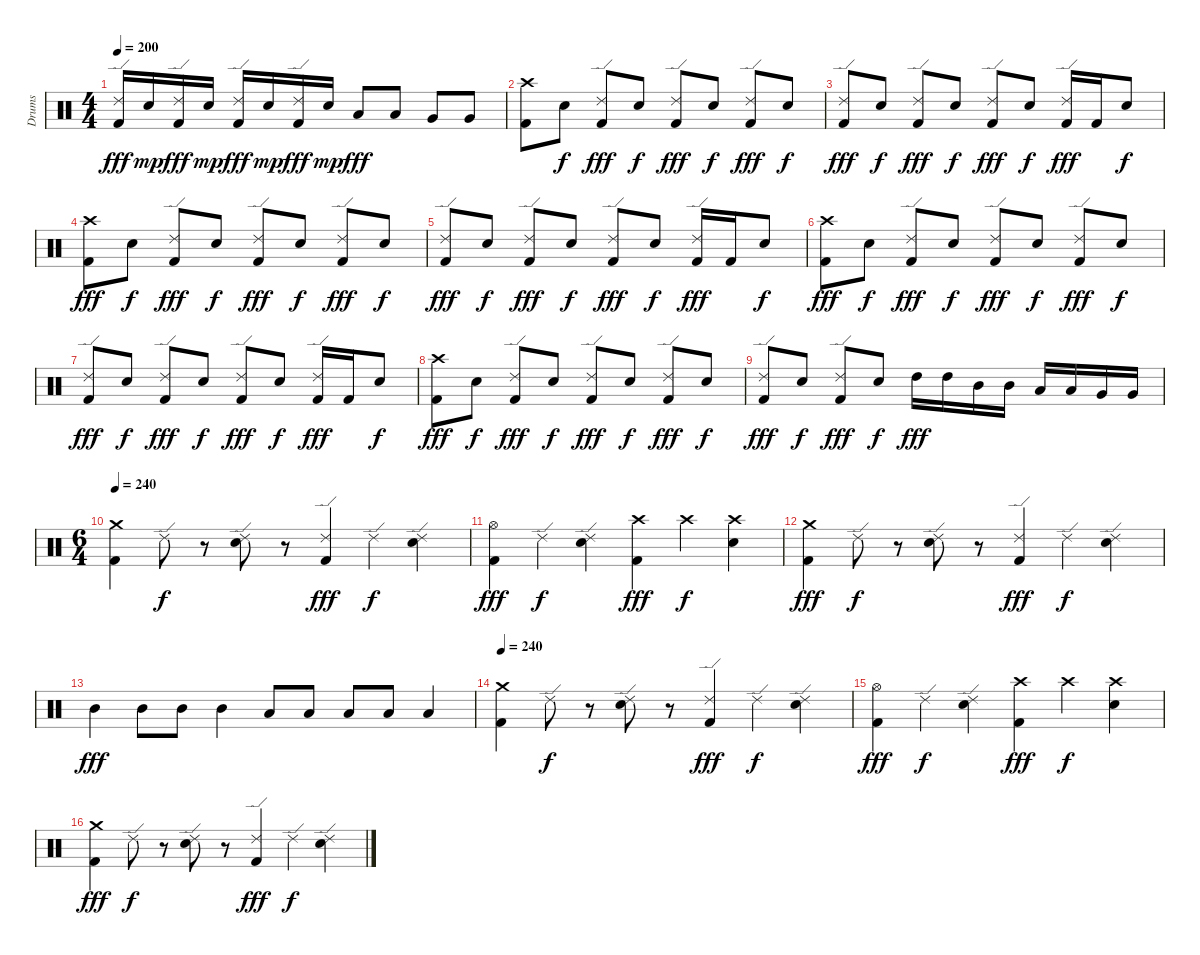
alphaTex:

\track ("Drums" "Drums") {instrument percussion}
\staff {score}
\articulation defaults
\ts (4 4)
\tempo 200
\clef neutral
\ks c
("Ride (edge) 2" "Kick (hit) 2").16{dy fff} "Electric Snare (hit)".16{dy mp} ("Ride (edge) 2" "Kick (hit) 2").16{dy fff} "Electric Snare (hit)".16{dy mp} ("Ride (edge) 2" "Kick (hit) 2").16{dy fff} "Electric Snare (hit)".16{dy mp} ("Ride (edge) 2" "Kick (hit) 2").16{dy fff} "Electric Snare (hit)".16{dy mp} "Low Tom (hit)".8{dy fff} "Low Tom (hit)".8 "Very Low Tom (hit)".8 "Very Low Tom (hit)".8 |
("Crash high (hit)" "Kick (hit) 2").8 "Electric Snare (hit)".8{dy f} ("Ride (edge) 2" "Kick (hit) 2").8{dy fff} "Electric Snare (hit)".8{dy f} ("Ride (edge) 2" "Kick (hit) 2").8{dy fff} "Electric Snare (hit)".8{dy f} ("Ride (edge) 2" "Kick (hit) 2").8{dy fff} "Electric Snare (hit)".8{dy f} |
("Ride (edge) 2" "Kick (hit) 2").8{dy fff} "Electric Snare (hit)".8{dy f} ("Ride (edge) 2" "Kick (hit) 2").8{dy fff} "Electric Snare (hit)".8{dy f} ("Ride (edge) 2" "Kick (hit) 2").8{dy fff} "Electric Snare (hit)".8{dy f} ("Ride (edge) 2" "Kick (hit) 2").16{dy fff} "Kick (hit) 2".16 "Electric Snare (hit)".8{dy f} |
("Crash high (hit)" "Kick (hit) 2").8{dy fff} "Electric Snare (hit)".8{dy f} ("Ride (edge) 2" "Kick (hit) 2").8{dy fff} "Electric Snare (hit)".8{dy f} ("Ride (edge) 2" "Kick (hit) 2").8{dy fff} "Electric Snare (hit)".8{dy f} ("Ride (edge) 2" "Kick (hit) 2").8{dy fff} "Electric Snare (hit)".8{dy f} |
("Ride (edge) 2" "Kick (hit) 2").8{dy fff} "Electric Snare (hit)".8{dy f} ("Ride (edge) 2" "Kick (hit) 2").8{dy fff} "Electric Snare (hit)".8{dy f} ("Ride (edge) 2" "Kick (hit) 2").8{dy fff} "Electric Snare (hit)".8{dy f} ("Ride (edge) 2" "Kick (hit) 2").16{dy fff} "Kick (hit) 2".16 "Electric Snare (hit)".8{dy f} |
("Crash high (hit)" "Kick (hit) 2").8{dy fff} "Electric Snare (hit)".8{dy f} ("Ride (edge) 2" "Kick (hit) 2").8{dy fff} "Electric Snare (hit)".8{dy f} ("Ride (edge) 2" "Kick (hit) 2").8{dy fff} "Electric Snare (hit)".8{dy f} ("Ride (edge) 2" "Kick (hit) 2").8{dy fff} "Electric Snare (hit)".8{dy f} |
("Ride (edge) 2" "Kick (hit) 2").8{dy fff} "Electric Snare (hit)".8{dy f} ("Ride (edge) 2" "Kick (hit) 2").8{dy fff} "Electric Snare (hit)".8{dy f} ("Ride (edge) 2" "Kick (hit) 2").8{dy fff} "Electric Snare (hit)".8{dy f} ("Ride (edge) 2" "Kick (hit) 2").16{dy fff} "Kick (hit) 2".16 "Electric Snare (hit)".8{dy f} |
("Crash high (hit)" "Kick (hit) 2").8{dy fff} "Electric Snare (hit)".8{dy f} ("Ride (edge) 2" "Kick (hit) 2").8{dy fff} "Electric Snare (hit)".8{dy f} ("Ride (edge) 2" "Kick (hit) 2").8{dy fff} "Electric Snare (hit)".8{dy f} ("Ride (edge) 2" "Kick (hit) 2").8{dy fff} "Electric Snare (hit)".8{dy f} |
("Ride (edge) 2" "Kick (hit) 2").8{dy fff} "Electric Snare (hit)".8{dy f} ("Ride (edge) 2" "Kick (hit) 2").8{dy fff} "Electric Snare (hit)".8{dy f} "High Tom (hit)".16{dy fff} "High Tom (hit)".16 "Mid Tom (hit)".16 "Mid Tom (hit)".16 "Low Tom (hit)".16 "Low Tom (hit)".16 "Very Low Tom (hit)".16 "Very Low Tom (hit)".16 |
\ts (6 4)
\tempo 240
("Crash medium (hit)" "Kick (hit) 2").4 "Ride (edge) 2".8{dy f} r.8 ("Ride (edge) 2" "Electric Snare (hit)").8 r.8 ("Ride (edge) 2" "Kick (hit) 2").4{dy fff} "Ride (edge) 2".4{dy f} ("Ride (edge) 2" "Electric Snare (hit)").4 |
("Hi-Hat (open)" "Kick (hit) 2").4{dy fff} "Ride (edge) 2".4{dy f} ("Ride (edge) 2" "Electric Snare (hit)").4 ("Crash high (hit)" "Kick (hit) 2").4{dy fff} "Crash high (hit)".4{dy f} ("Crash high (hit)" "Electric Snare (hit)").4 |
("Crash medium (hit)" "Kick (hit) 2").4{dy fff} "Ride (edge) 2".8{dy f} r.8 ("Ride (edge) 2" "Electric Snare (hit)").8 r.8 ("Ride (edge) 2" "Kick (hit) 2").4{dy fff} "Ride (edge) 2".4{dy f} ("Ride (edge) 2" "Electric Snare (hit)").4 |
"Mid Tom (hit)".4{dy fff} "Mid Tom (hit)".8 "Mid Tom (hit)".8 "Mid Tom (hit)".4 "Low Tom (hit)".8 "Low Tom (hit)".8 "Low Tom (hit)".8 "Low Tom (hit)".8 "Low Tom (hit)".4 |
\tempo 240
("Crash medium (hit)" "Kick (hit) 2").4 "Ride (edge) 2".8{dy f} r.8 ("Ride (edge) 2" "Electric Snare (hit)").8 r.8 ("Ride (edge) 2" "Kick (hit) 2").4{dy fff} "Ride (edge) 2".4{dy f} ("Ride (edge) 2" "Electric Snare (hit)").4 |
("Hi-Hat (open)" "Kick (hit) 2").4{dy fff} "Ride (edge) 2".4{dy f} ("Ride (edge) 2" "Electric Snare (hit)").4 ("Crash high (hit)" "Kick (hit) 2").4{dy fff} "Crash high (hit)".4{dy f} ("Crash high (hit)" "Electric Snare (hit)").4 |
("Crash medium (hit)" "Kick (hit) 2").4{dy fff} "Ride (edge) 2".8{dy f} r.8 ("Ride (edge) 2" "Electric Snare (hit)").8 r.8 ("Ride (edge) 2" "Kick (hit) 2").4{dy fff} "Ride (edge) 2".4{dy f} ("Ride (edge) 2" "Electric Snare (hit)").4
